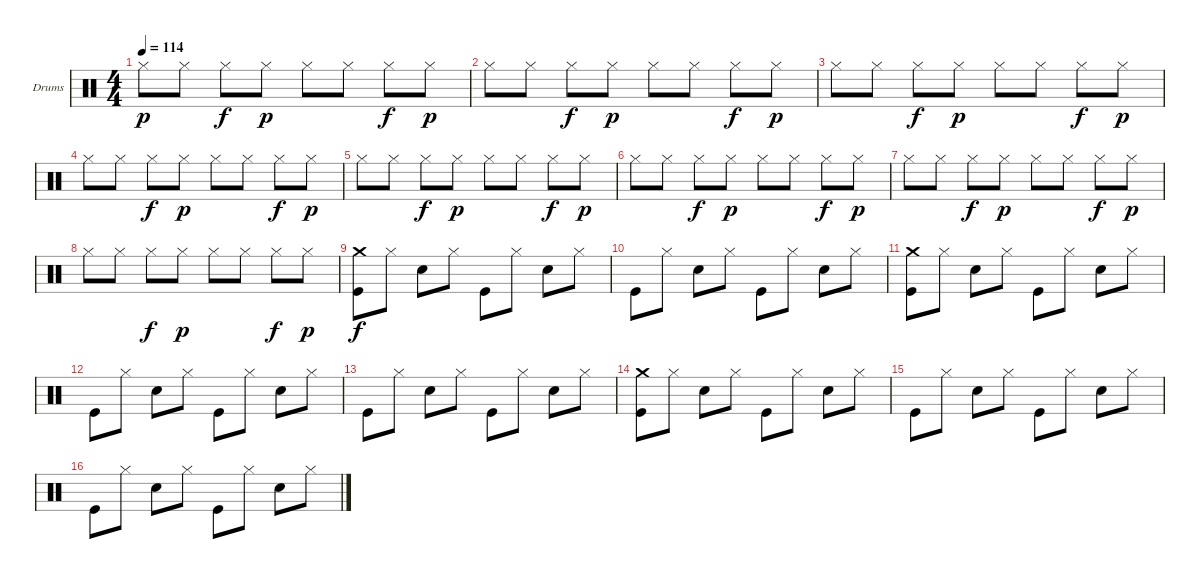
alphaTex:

\defaultSystemsLayout 4
\bracketExtendMode groupsimilarinstruments
\firstSystemTrackNameOrientation horizontal
\otherSystemsTrackNameOrientation horizontal
\track ("Е. Кулаков" "Drums") {instrument percussion}
\staff {score}
\articulation defaults
\ts (4 4)
\tempo 114
\clef neutral
\ks c "Hi-Hat (closed)".8{dy p} "Hi-Hat (closed)".8 "Hi-Hat (closed)".8{dy f} "Hi-Hat (closed)".8{dy p} "Hi-Hat (closed)".8 "Hi-Hat (closed)".8 "Hi-Hat (closed)".8{dy f} "Hi-Hat (closed)".8{dy p}
|
"Hi-Hat (closed)".8 "Hi-Hat (closed)".8 "Hi-Hat (closed)".8{dy f} "Hi-Hat (closed)".8{dy p} "Hi-Hat (closed)".8 "Hi-Hat (closed)".8 "Hi-Hat (closed)".8{dy f} "Hi-Hat (closed)".8{dy p} |
"Hi-Hat (closed)".8 "Hi-Hat (closed)".8 "Hi-Hat (closed)".8{dy f} "Hi-Hat (closed)".8{dy p} "Hi-Hat (closed)".8 "Hi-Hat (closed)".8 "Hi-Hat (closed)".8{dy f} "Hi-Hat (closed)".8{dy p} |
"Hi-Hat (closed)".8 "Hi-Hat (closed)".8 "Hi-Hat (closed)".8{dy f} "Hi-Hat (closed)".8{dy p} "Hi-Hat (closed)".8 "Hi-Hat (closed)".8 "Hi-Hat (closed)".8{dy f} "Hi-Hat (closed)".8{dy p} |
"Hi-Hat (closed)".8 "Hi-Hat (closed)".8 "Hi-Hat (closed)".8{dy f} "Hi-Hat (closed)".8{dy p} "Hi-Hat (closed)".8 "Hi-Hat (closed)".8 "Hi-Hat (closed)".8{dy f} "Hi-Hat (closed)".8{dy p} |
"Hi-Hat (closed)".8 "Hi-Hat (closed)".8 "Hi-Hat (closed)".8{dy f} "Hi-Hat (closed)".8{dy p} "Hi-Hat (closed)".8 "Hi-Hat (closed)".8 "Hi-Hat (closed)".8{dy f} "Hi-Hat (closed)".8{dy p} |
"Hi-Hat (closed)".8 "Hi-Hat (closed)".8 "Hi-Hat (closed)".8{dy f} "Hi-Hat (closed)".8{dy p} "Hi-Hat (closed)".8 "Hi-Hat (closed)".8 "Hi-Hat (closed)".8{dy f} "Hi-Hat (closed)".8{dy p} |
"Hi-Hat (closed)".8 "Hi-Hat (closed)".8 "Hi-Hat (closed)".8{dy f} "Hi-Hat (closed)".8{dy p} "Hi-Hat (closed)".8 "Hi-Hat (closed)".8 "Hi-Hat (closed)".8{dy f} "Hi-Hat (closed)".8{dy p} |
("Kick (hit)" "Crash medium (hit)").8{dy f} "Hi-Hat (closed)".8 "Snare (hit) 2".8 "Hi-Hat (closed)".8 "Kick (hit)".8 "Hi-Hat (closed)".8 "Snare (hit) 2".8 "Hi-Hat (closed)".8 |
"Kick (hit)".8 "Hi-Hat (closed)".8 "Snare (hit) 2".8 "Hi-Hat (closed)".8 "Kick (hit)".8 "Hi-Hat (closed)".8 "Snare (hit) 2".8 "Hi-Hat (closed)".8 |
("Kick (hit)" "Crash medium (hit)").8 "Hi-Hat (closed)".8 "Snare (hit) 2".8 "Hi-Hat (closed)".8 "Kick (hit)".8 "Hi-Hat (closed)".8 "Snare (hit) 2".8 "Hi-Hat (closed)".8 |
"Kick (hit)".8 "Hi-Hat (closed)".8 "Snare (hit) 2".8 "Hi-Hat (closed)".8 "Kick (hit)".8 "Hi-Hat (closed)".8 "Snare (hit) 2".8 "Hi-Hat (closed)".8 |
"Kick (hit)".8 "Hi-Hat (closed)".8 "Snare (hit) 2".8 "Hi-Hat (closed)".8 "Kick (hit)".8 "Hi-Hat (closed)".8 "Snare (hit) 2".8 "Hi-Hat (closed)".8 |
("Kick (hit)" "Crash medium (hit)").8 "Hi-Hat (closed)".8 "Snare (hit) 2".8 "Hi-Hat (closed)".8 "Kick (hit)".8 "Hi-Hat (closed)".8 "Snare (hit) 2".8 "Hi-Hat (closed)".8 |
"Kick (hit)".8 "Hi-Hat (closed)".8 "Snare (hit) 2".8 "Hi-Hat (closed)".8 "Kick (hit)".8 "Hi-Hat (closed)".8 "Snare (hit) 2".8 "Hi-Hat (closed)".8 |
"Kick (hit)".8 "Hi-Hat (closed)".8 "Snare (hit) 2".8 "Hi-Hat (closed)".8 "Kick (hit)".8 "Hi-Hat (closed)".8 "Snare (hit) 2".8 "Hi-Hat (closed)".8
